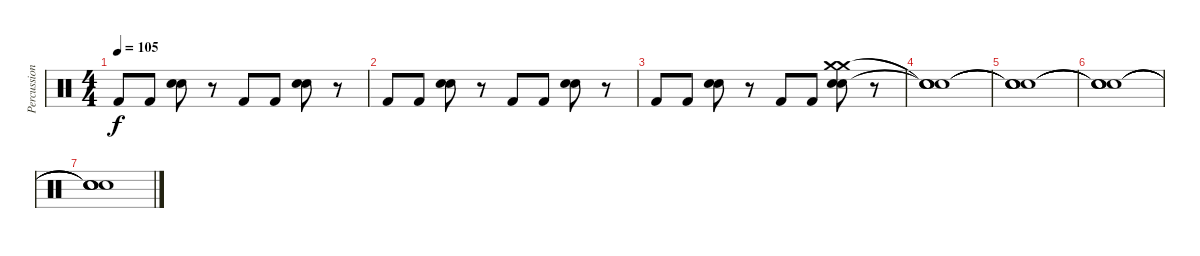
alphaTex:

\track ("Percussions" "Percussion") {instrument percussion}
\staff {score}
\articulation defaults
\ts (4 4)
\tempo 105
\clef neutral
\ks c "Kick (hit) 2".8{dy f} "Kick (hit) 2".8
("Electric Snare (hit)" "Electric Snare (hit)").8 r.8 "Kick (hit) 2".8 "Kick (hit) 2".8 ("Electric Snare (hit)" "Electric Snare (hit)").8 r.8 |
"Kick (hit) 2".8 "Kick (hit) 2".8 ("Electric Snare (hit)" "Electric Snare (hit)").8 r.8 "Kick (hit) 2".8 "Kick (hit) 2".8 ("Electric Snare (hit)" "Electric Snare (hit)").8 r.8 |
"Kick (hit) 2".8 "Kick (hit) 2".8 ("Electric Snare (hit)" "Electric Snare (hit)").8 r.8 "Kick (hit) 2".8 "Kick (hit) 2".8 ("Crash medium (hit)" "Crash medium (hit)" "Electric Snare (hit)" "Electric Snare (hit)").8 r.8 |
("Snare (hit)"{t} "Snare (hit)"{t} "Snare (hit)"{t} "Snare (hit)"{t}).1{volume 8} |
("Snare (hit)"{t} "Snare (hit)"{t} "Snare (hit)"{t} "Snare (hit)"{t}).1{volume 6} |
("Snare (hit)"{t} "Snare (hit)"{t} "Snare (hit)"{t} "Snare (hit)"{t}).1{volume 3} |
("Snare (hit)"{t} "Snare (hit)"{t} "Snare (hit)"{t} "Snare (hit)"{t}).1{volume 1}
